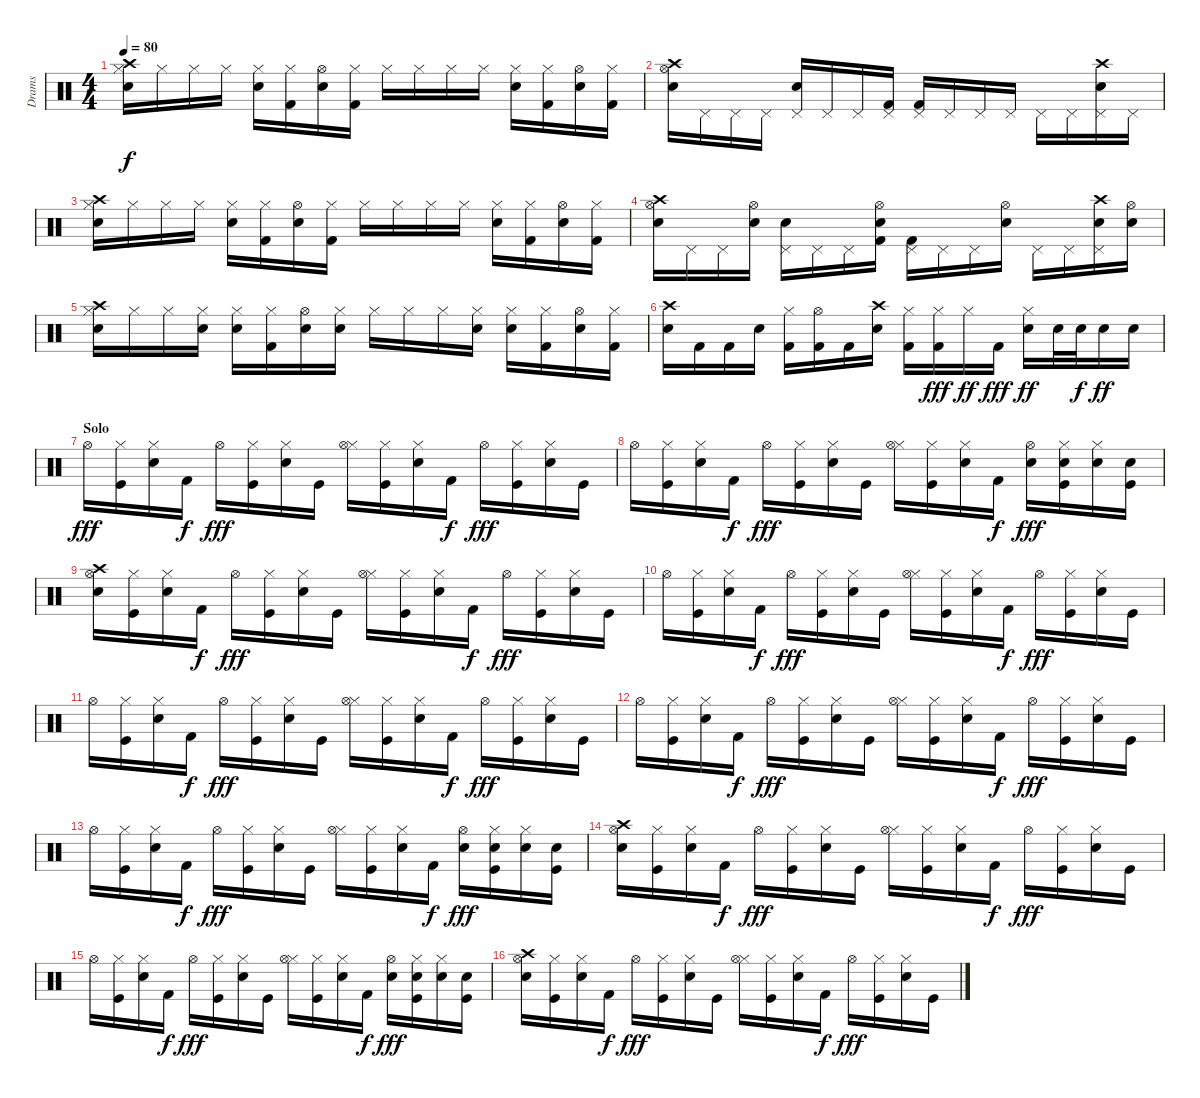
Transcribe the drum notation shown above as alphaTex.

\track ("Drams" "Drams") {instrument percussion}
\staff {score}
\articulation defaults
\ts (4 4)
\tempo 80
\clef neutral
\ks c
("Crash high (hit)" "Snare (hit) 2" "Hi-Hat (closed)").16{dy f} "Hi-Hat (closed)".16 "Hi-Hat (closed)".16 "Hi-Hat (closed)".16 ("Snare (hit) 2" "Hi-Hat (closed)").16 ("Hi-Hat (closed)" "Kick (hit) 2").16 ("Snare (hit) 2" "Hi-Hat (open)").16 ("Hi-Hat (closed)" "Kick (hit) 2").16 "Hi-Hat (closed)".16 "Hi-Hat (closed)".16 "Hi-Hat (closed)".16 "Hi-Hat (closed)".16 ("Snare (hit) 2" "Hi-Hat (closed)").16 ("Hi-Hat (closed)" "Kick (hit) 2").16 ("Snare (hit) 2" "Hi-Hat (open)").16 ("Hi-Hat (closed)" "Kick (hit) 2").16 |
("Hi-Hat (open)" "Crash high (hit)" "Snare (hit) 2").16 "Pedal Hi-Hat (hit)".16 "Pedal Hi-Hat (hit)".16 "Pedal Hi-Hat (hit)".16 ("Pedal Hi-Hat (hit)" "Snare (hit) 2").16 "Pedal Hi-Hat (hit)".16 "Pedal Hi-Hat (hit)".16 ("Pedal Hi-Hat (hit)" "Kick (hit) 2").16 ("Pedal Hi-Hat (hit)" "Kick (hit) 2").16 "Pedal Hi-Hat (hit)".16 "Pedal Hi-Hat (hit)".16 "Pedal Hi-Hat (hit)".16 "Pedal Hi-Hat (hit)".16 "Pedal Hi-Hat (hit)".16 ("Pedal Hi-Hat (hit)" "Crash high (hit)" "Snare (hit) 2").16 "Pedal Hi-Hat (hit)".16 |
("Crash high (hit)" "Snare (hit) 2" "Hi-Hat (closed)").16 "Hi-Hat (closed)".16 "Hi-Hat (closed)".16 "Hi-Hat (closed)".16 ("Snare (hit) 2" "Hi-Hat (closed)").16 ("Hi-Hat (closed)" "Kick (hit) 2").16 ("Snare (hit) 2" "Hi-Hat (open)").16 ("Hi-Hat (closed)" "Kick (hit) 2").16 "Hi-Hat (closed)".16 "Hi-Hat (closed)".16 "Hi-Hat (closed)".16 "Hi-Hat (closed)".16 ("Snare (hit) 2" "Hi-Hat (closed)").16 ("Hi-Hat (closed)" "Kick (hit) 2").16 ("Snare (hit) 2" "Hi-Hat (open)").16 ("Hi-Hat (closed)" "Kick (hit) 2").16 |
("Hi-Hat (open)" "Crash high (hit)" "Snare (hit) 2").16 "Pedal Hi-Hat (hit)".16 "Pedal Hi-Hat (hit)".16 ("Hi-Hat (open)" "Snare (hit) 2").16 ("Pedal Hi-Hat (hit)" "Snare (hit) 2").16 "Pedal Hi-Hat (hit)".16 "Pedal Hi-Hat (hit)".16 ("Hi-Hat (open)" "Snare (hit) 2" "Kick (hit) 2").16 ("Pedal Hi-Hat (hit)" "Kick (hit) 2").16 "Pedal Hi-Hat (hit)".16 "Pedal Hi-Hat (hit)".16 ("Hi-Hat (open)" "Snare (hit) 2").16 "Pedal Hi-Hat (hit)".16 "Pedal Hi-Hat (hit)".16 ("Pedal Hi-Hat (hit)" "Crash high (hit)" "Snare (hit) 2").16 ("Hi-Hat (open)" "Snare (hit) 2").16 |
("Crash high (hit)" "Snare (hit) 2" "Hi-Hat (closed)").16 "Hi-Hat (closed)".16 "Hi-Hat (closed)".16 ("Snare (hit) 2" "Hi-Hat (closed)").16 ("Snare (hit) 2" "Hi-Hat (closed)").16 ("Hi-Hat (closed)" "Kick (hit) 2").16 ("Snare (hit) 2" "Hi-Hat (open)").16 ("Hi-Hat (closed)" "Snare (hit) 2").16 "Hi-Hat (closed)".16 "Hi-Hat (closed)".16 "Hi-Hat (closed)".16 ("Snare (hit) 2" "Hi-Hat (closed)").16 ("Snare (hit) 2" "Hi-Hat (closed)").16 ("Hi-Hat (closed)" "Kick (hit) 2").16 ("Snare (hit) 2" "Hi-Hat (open)").16 ("Hi-Hat (closed)" "Kick (hit) 2").16 |
("Snare (hit) 2" "Crash high (hit)").16 "Kick (hit) 2".16 "Kick (hit) 2".16 "Snare (hit) 2".16 ("Hi-Hat (closed)" "Kick (hit) 2").16 ("Kick (hit) 2" "Hi-Hat (open)").16 "Kick (hit) 2".16 ("Snare (hit) 2" "Crash high (hit)").16 ("Hi-Hat (closed)" "Kick (hit) 2").16 ("Hi-Hat (closed)" "Kick (hit) 2").16{dy fff} "Hi-Hat (closed)".16{dy ff} "Kick (hit) 2".16{dy fff} ("Hi-Hat (closed)" "Snare (hit) 2").16{dy ff} "Snare (hit) 2".32 "Snare (hit) 2".32{dy f} "Snare (hit) 2".16{dy ff} "Snare (hit) 2".16 |
\section ("" "Solo")
"Hi-Hat (open)".16{dy fff} ("Kick (hit)" "Hi-Hat (closed)").16 ("Hi-Hat (closed)" "Snare (hit) 2").16 "Kick (hit) 2".16{dy f} "Hi-Hat (open)".16{dy fff} ("Kick (hit)" "Hi-Hat (closed)").16 ("Hi-Hat (closed)" "Snare (hit) 2").16 "Kick (hit)".16 ("Hi-Hat (closed)" "Hi-Hat (open)").16 ("Kick (hit)" "Hi-Hat (closed)").16 ("Hi-Hat (closed)" "Snare (hit) 2").16 "Kick (hit) 2".16{dy f} "Hi-Hat (open)".16{dy fff} ("Kick (hit)" "Hi-Hat (closed)").16 ("Hi-Hat (closed)" "Snare (hit) 2").16 "Kick (hit)".16 |
"Hi-Hat (open)".16 ("Kick (hit)" "Hi-Hat (closed)").16 ("Hi-Hat (closed)" "Snare (hit) 2").16 "Kick (hit) 2".16{dy f} "Hi-Hat (open)".16{dy fff} ("Kick (hit)" "Hi-Hat (closed)").16 ("Hi-Hat (closed)" "Snare (hit) 2").16 "Kick (hit)".16 ("Hi-Hat (closed)" "Hi-Hat (open)").16 ("Kick (hit)" "Hi-Hat (closed)").16 ("Hi-Hat (closed)" "Snare (hit) 2").16 "Kick (hit) 2".16{dy f} ("Hi-Hat (open)" "Snare (hit) 2").16{dy fff} ("Kick (hit)" "Snare (hit) 2" "Hi-Hat (closed)").16 ("Hi-Hat (closed)" "Snare (hit) 2").16 ("Kick (hit)" "Snare (hit) 2").16 |
("Hi-Hat (open)" "Crash high (hit)" "Snare (hit) 2").16 ("Kick (hit)" "Hi-Hat (closed)").16 ("Hi-Hat (closed)" "Snare (hit) 2").16 "Kick (hit) 2".16{dy f} "Hi-Hat (open)".16{dy fff} ("Kick (hit)" "Hi-Hat (closed)").16 ("Hi-Hat (closed)" "Snare (hit) 2").16 "Kick (hit)".16 ("Hi-Hat (closed)" "Hi-Hat (open)").16 ("Kick (hit)" "Hi-Hat (closed)").16 ("Hi-Hat (closed)" "Snare (hit) 2").16 "Kick (hit) 2".16{dy f} "Hi-Hat (open)".16{dy fff} ("Kick (hit)" "Hi-Hat (closed)").16 ("Hi-Hat (closed)" "Snare (hit) 2").16 "Kick (hit)".16 |
"Hi-Hat (open)".16 ("Kick (hit)" "Hi-Hat (closed)").16 ("Hi-Hat (closed)" "Snare (hit) 2").16 "Kick (hit) 2".16{dy f} "Hi-Hat (open)".16{dy fff} ("Kick (hit)" "Hi-Hat (closed)").16 ("Hi-Hat (closed)" "Snare (hit) 2").16 "Kick (hit)".16 ("Hi-Hat (closed)" "Hi-Hat (open)").16 ("Kick (hit)" "Hi-Hat (closed)").16 ("Hi-Hat (closed)" "Snare (hit) 2").16 "Kick (hit) 2".16{dy f} "Hi-Hat (open)".16{dy fff} ("Kick (hit)" "Hi-Hat (closed)").16 ("Hi-Hat (closed)" "Snare (hit) 2").16 "Kick (hit)".16 |
"Hi-Hat (open)".16 ("Kick (hit)" "Hi-Hat (closed)").16 ("Hi-Hat (closed)" "Snare (hit) 2").16 "Kick (hit) 2".16{dy f} "Hi-Hat (open)".16{dy fff} ("Kick (hit)" "Hi-Hat (closed)").16 ("Hi-Hat (closed)" "Snare (hit) 2").16 "Kick (hit)".16 ("Hi-Hat (closed)" "Hi-Hat (open)").16 ("Kick (hit)" "Hi-Hat (closed)").16 ("Hi-Hat (closed)" "Snare (hit) 2").16 "Kick (hit) 2".16{dy f} "Hi-Hat (open)".16{dy fff} ("Kick (hit)" "Hi-Hat (closed)").16 ("Hi-Hat (closed)" "Snare (hit) 2").16 "Kick (hit)".16 |
"Hi-Hat (open)".16 ("Kick (hit)" "Hi-Hat (closed)").16 ("Hi-Hat (closed)" "Snare (hit) 2").16 "Kick (hit) 2".16{dy f} "Hi-Hat (open)".16{dy fff} ("Kick (hit)" "Hi-Hat (closed)").16 ("Hi-Hat (closed)" "Snare (hit) 2").16 "Kick (hit)".16 ("Hi-Hat (closed)" "Hi-Hat (open)").16 ("Kick (hit)" "Hi-Hat (closed)").16 ("Hi-Hat (closed)" "Snare (hit) 2").16 "Kick (hit) 2".16{dy f} "Hi-Hat (open)".16{dy fff} ("Kick (hit)" "Hi-Hat (closed)").16 ("Hi-Hat (closed)" "Snare (hit) 2").16 "Kick (hit)".16 |
"Hi-Hat (open)".16 ("Kick (hit)" "Hi-Hat (closed)").16 ("Hi-Hat (closed)" "Snare (hit) 2").16 "Kick (hit) 2".16{dy f} "Hi-Hat (open)".16{dy fff} ("Kick (hit)" "Hi-Hat (closed)").16 ("Hi-Hat (closed)" "Snare (hit) 2").16 "Kick (hit)".16 ("Hi-Hat (closed)" "Hi-Hat (open)").16 ("Kick (hit)" "Hi-Hat (closed)").16 ("Hi-Hat (closed)" "Snare (hit) 2").16 "Kick (hit) 2".16{dy f} ("Hi-Hat (open)" "Snare (hit) 2").16{dy fff} ("Kick (hit)" "Snare (hit) 2" "Hi-Hat (closed)").16 ("Hi-Hat (closed)" "Snare (hit) 2").16 ("Kick (hit)" "Snare (hit) 2").16 |
("Hi-Hat (open)" "Crash high (hit)" "Snare (hit) 2").16 ("Kick (hit)" "Hi-Hat (closed)").16 ("Hi-Hat (closed)" "Snare (hit) 2").16 "Kick (hit) 2".16{dy f} "Hi-Hat (open)".16{dy fff} ("Kick (hit)" "Hi-Hat (closed)").16 ("Hi-Hat (closed)" "Snare (hit) 2").16 "Kick (hit)".16 ("Hi-Hat (closed)" "Hi-Hat (open)").16 ("Kick (hit)" "Hi-Hat (closed)").16 ("Hi-Hat (closed)" "Snare (hit) 2").16 "Kick (hit) 2".16{dy f} "Hi-Hat (open)".16{dy fff} ("Kick (hit)" "Hi-Hat (closed)").16 ("Hi-Hat (closed)" "Snare (hit) 2").16 "Kick (hit)".16 |
"Hi-Hat (open)".16 ("Kick (hit)" "Hi-Hat (closed)").16 ("Hi-Hat (closed)" "Snare (hit) 2").16 "Kick (hit) 2".16{dy f} "Hi-Hat (open)".16{dy fff} ("Kick (hit)" "Hi-Hat (closed)").16 ("Hi-Hat (closed)" "Snare (hit) 2").16 "Kick (hit)".16 ("Hi-Hat (closed)" "Hi-Hat (open)").16 ("Kick (hit)" "Hi-Hat (closed)").16 ("Hi-Hat (closed)" "Snare (hit) 2").16 "Kick (hit) 2".16{dy f} ("Hi-Hat (open)" "Snare (hit) 2").16{dy fff} ("Kick (hit)" "Snare (hit) 2" "Hi-Hat (closed)").16 ("Hi-Hat (closed)" "Snare (hit) 2").16 ("Kick (hit)" "Snare (hit) 2").16 |
("Hi-Hat (open)" "Crash high (hit)" "Snare (hit) 2").16 ("Kick (hit)" "Hi-Hat (closed)").16 ("Hi-Hat (closed)" "Snare (hit) 2").16 "Kick (hit) 2".16{dy f} "Hi-Hat (open)".16{dy fff} ("Kick (hit)" "Hi-Hat (closed)").16 ("Hi-Hat (closed)" "Snare (hit) 2").16 "Kick (hit)".16 ("Hi-Hat (closed)" "Hi-Hat (open)").16 ("Kick (hit)" "Hi-Hat (closed)").16 ("Hi-Hat (closed)" "Snare (hit) 2").16 "Kick (hit) 2".16{dy f} "Hi-Hat (open)".16{dy fff} ("Kick (hit)" "Hi-Hat (closed)").16 ("Hi-Hat (closed)" "Snare (hit) 2").16 "Kick (hit)".16
